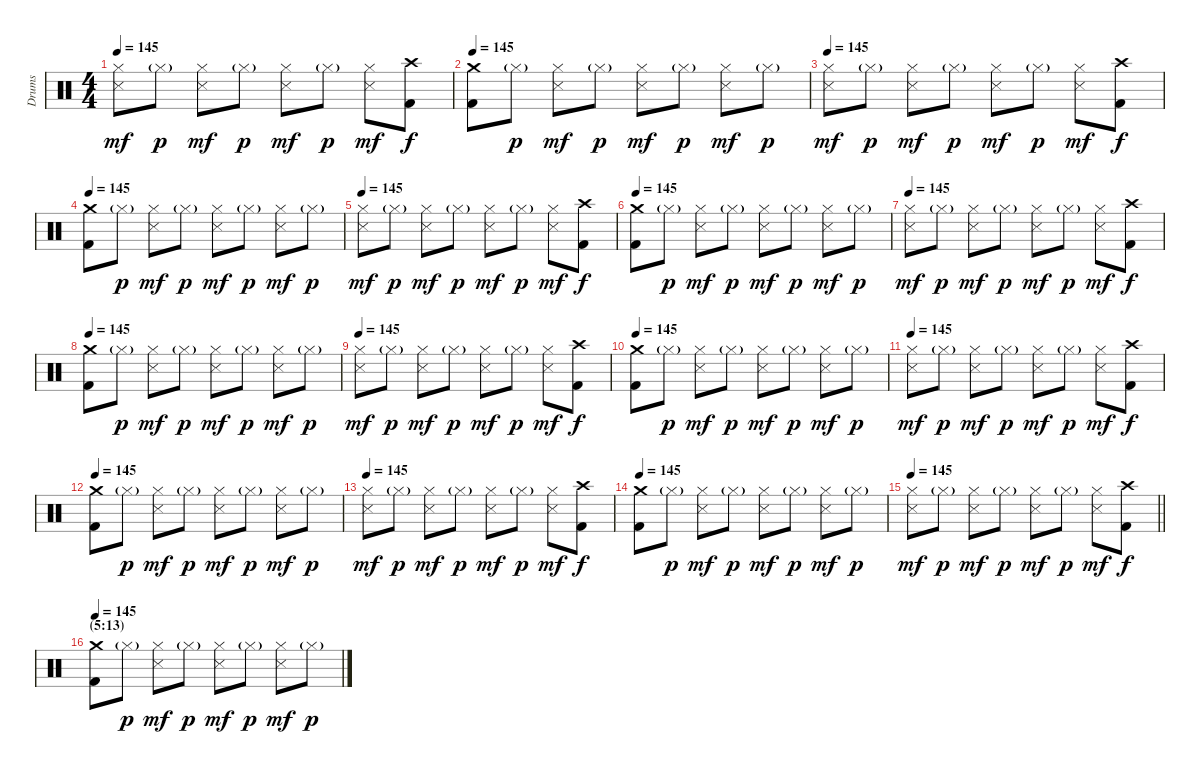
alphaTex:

\track ("Drums" "Drums") {instrument percussion}
\staff {score}
\articulation defaults
\ts (4 4)
\tempo 145
\clef neutral
\ks c
("Hi-Hat (closed)" "Snare (side stick) 3").8{dy mf} "Hi-Hat (closed)"{g}.8{dy p} ("Hi-Hat (closed)" "Snare (side stick) 3").8{dy mf} "Hi-Hat (closed)"{g}.8{dy p} ("Hi-Hat (closed)" "Snare (side stick) 3").8{dy mf} "Hi-Hat (closed)"{g}.8{dy p} ("Hi-Hat (closed)" "Snare (side stick) 3").8{dy mf} ("Crash high (hit)" "Kick (hit) 2").8{dy f} |
\tempo 145
("Crash medium (hit)" "Kick (hit) 2").8 "Hi-Hat (closed)"{g}.8{dy p} ("Hi-Hat (closed)" "Snare (side stick) 3").8{dy mf} "Hi-Hat (closed)"{g}.8{dy p} ("Hi-Hat (closed)" "Snare (side stick) 3").8{dy mf} "Hi-Hat (closed)"{g}.8{dy p} ("Hi-Hat (closed)" "Snare (side stick) 3").8{dy mf} "Hi-Hat (closed)"{g}.8{dy p} |
\tempo 145
("Hi-Hat (closed)" "Snare (side stick) 3").8{dy mf} "Hi-Hat (closed)"{g}.8{dy p} ("Hi-Hat (closed)" "Snare (side stick) 3").8{dy mf} "Hi-Hat (closed)"{g}.8{dy p} ("Hi-Hat (closed)" "Snare (side stick) 3").8{dy mf} "Hi-Hat (closed)"{g}.8{dy p} ("Hi-Hat (closed)" "Snare (side stick) 3").8{dy mf} ("Crash high (hit)" "Kick (hit) 2").8{dy f} |
\tempo 145
("Crash medium (hit)" "Kick (hit) 2").8 "Hi-Hat (closed)"{g}.8{dy p} ("Hi-Hat (closed)" "Snare (side stick) 3").8{dy mf} "Hi-Hat (closed)"{g}.8{dy p} ("Hi-Hat (closed)" "Snare (side stick) 3").8{dy mf} "Hi-Hat (closed)"{g}.8{dy p} ("Hi-Hat (closed)" "Snare (side stick) 3").8{dy mf} "Hi-Hat (closed)"{g}.8{dy p} |
\tempo 145
("Hi-Hat (closed)" "Snare (side stick) 3").8{dy mf} "Hi-Hat (closed)"{g}.8{dy p} ("Hi-Hat (closed)" "Snare (side stick) 3").8{dy mf} "Hi-Hat (closed)"{g}.8{dy p} ("Hi-Hat (closed)" "Snare (side stick) 3").8{dy mf} "Hi-Hat (closed)"{g}.8{dy p} ("Hi-Hat (closed)" "Snare (side stick) 3").8{dy mf} ("Crash high (hit)" "Kick (hit) 2").8{dy f} |
\tempo 145
("Crash medium (hit)" "Kick (hit) 2").8 "Hi-Hat (closed)"{g}.8{dy p} ("Hi-Hat (closed)" "Snare (side stick) 3").8{dy mf} "Hi-Hat (closed)"{g}.8{dy p} ("Hi-Hat (closed)" "Snare (side stick) 3").8{dy mf} "Hi-Hat (closed)"{g}.8{dy p} ("Hi-Hat (closed)" "Snare (side stick) 3").8{dy mf} "Hi-Hat (closed)"{g}.8{dy p} |
\tempo 145
("Hi-Hat (closed)" "Snare (side stick) 3").8{dy mf} "Hi-Hat (closed)"{g}.8{dy p} ("Hi-Hat (closed)" "Snare (side stick) 3").8{dy mf} "Hi-Hat (closed)"{g}.8{dy p} ("Hi-Hat (closed)" "Snare (side stick) 3").8{dy mf} "Hi-Hat (closed)"{g}.8{dy p} ("Hi-Hat (closed)" "Snare (side stick) 3").8{dy mf} ("Crash high (hit)" "Kick (hit) 2").8{dy f} |
\tempo 145
("Crash medium (hit)" "Kick (hit) 2").8 "Hi-Hat (closed)"{g}.8{dy p} ("Hi-Hat (closed)" "Snare (side stick) 3").8{dy mf} "Hi-Hat (closed)"{g}.8{dy p} ("Hi-Hat (closed)" "Snare (side stick) 3").8{dy mf} "Hi-Hat (closed)"{g}.8{dy p} ("Hi-Hat (closed)" "Snare (side stick) 3").8{dy mf} "Hi-Hat (closed)"{g}.8{dy p} |
\tempo 145
("Hi-Hat (closed)" "Snare (side stick) 3").8{dy mf} "Hi-Hat (closed)"{g}.8{dy p} ("Hi-Hat (closed)" "Snare (side stick) 3").8{dy mf} "Hi-Hat (closed)"{g}.8{dy p} ("Hi-Hat (closed)" "Snare (side stick) 3").8{dy mf} "Hi-Hat (closed)"{g}.8{dy p} ("Hi-Hat (closed)" "Snare (side stick) 3").8{dy mf} ("Crash high (hit)" "Kick (hit) 2").8{dy f} |
\tempo 145
("Crash medium (hit)" "Kick (hit) 2").8 "Hi-Hat (closed)"{g}.8{dy p} ("Hi-Hat (closed)" "Snare (side stick) 3").8{dy mf} "Hi-Hat (closed)"{g}.8{dy p} ("Hi-Hat (closed)" "Snare (side stick) 3").8{dy mf} "Hi-Hat (closed)"{g}.8{dy p} ("Hi-Hat (closed)" "Snare (side stick) 3").8{dy mf} "Hi-Hat (closed)"{g}.8{dy p} |
\tempo 145
("Hi-Hat (closed)" "Snare (side stick) 3").8{dy mf} "Hi-Hat (closed)"{g}.8{dy p} ("Hi-Hat (closed)" "Snare (side stick) 3").8{dy mf} "Hi-Hat (closed)"{g}.8{dy p} ("Hi-Hat (closed)" "Snare (side stick) 3").8{dy mf} "Hi-Hat (closed)"{g}.8{dy p} ("Hi-Hat (closed)" "Snare (side stick) 3").8{dy mf} ("Crash high (hit)" "Kick (hit) 2").8{dy f} |
\tempo 145
("Crash medium (hit)" "Kick (hit) 2").8 "Hi-Hat (closed)"{g}.8{dy p} ("Hi-Hat (closed)" "Snare (side stick) 3").8{dy mf} "Hi-Hat (closed)"{g}.8{dy p} ("Hi-Hat (closed)" "Snare (side stick) 3").8{dy mf} "Hi-Hat (closed)"{g}.8{dy p} ("Hi-Hat (closed)" "Snare (side stick) 3").8{dy mf} "Hi-Hat (closed)"{g}.8{dy p} |
\tempo 145
("Hi-Hat (closed)" "Snare (side stick) 3").8{dy mf} "Hi-Hat (closed)"{g}.8{dy p} ("Hi-Hat (closed)" "Snare (side stick) 3").8{dy mf} "Hi-Hat (closed)"{g}.8{dy p} ("Hi-Hat (closed)" "Snare (side stick) 3").8{dy mf} "Hi-Hat (closed)"{g}.8{dy p} ("Hi-Hat (closed)" "Snare (side stick) 3").8{dy mf} ("Crash high (hit)" "Kick (hit) 2").8{dy f} |
\tempo 145
("Crash medium (hit)" "Kick (hit) 2").8 "Hi-Hat (closed)"{g}.8{dy p} ("Hi-Hat (closed)" "Snare (side stick) 3").8{dy mf} "Hi-Hat (closed)"{g}.8{dy p} ("Hi-Hat (closed)" "Snare (side stick) 3").8{dy mf} "Hi-Hat (closed)"{g}.8{dy p} ("Hi-Hat (closed)" "Snare (side stick) 3").8{dy mf} "Hi-Hat (closed)"{g}.8{dy p} |
\tempo 145
\barLineRight lightlight
("Hi-Hat (closed)" "Snare (side stick) 3").8{dy mf} "Hi-Hat (closed)"{g}.8{dy p} ("Hi-Hat (closed)" "Snare (side stick) 3").8{dy mf} "Hi-Hat (closed)"{g}.8{dy p} ("Hi-Hat (closed)" "Snare (side stick) 3").8{dy mf} "Hi-Hat (closed)"{g}.8{dy p} ("Hi-Hat (closed)" "Snare (side stick) 3").8{dy mf} ("Crash high (hit)" "Kick (hit) 2").8{dy f} |
\section ("" "(5:13)")
\tempo 145
("Crash medium (hit)" "Kick (hit) 2").8 "Hi-Hat (closed)"{g}.8{dy p} ("Hi-Hat (closed)" "Snare (side stick) 3").8{dy mf} "Hi-Hat (closed)"{g}.8{dy p} ("Hi-Hat (closed)" "Snare (side stick) 3").8{dy mf} "Hi-Hat (closed)"{g}.8{dy p} ("Hi-Hat (closed)" "Snare (side stick) 3").8{dy mf} "Hi-Hat (closed)"{g}.8{dy p}
